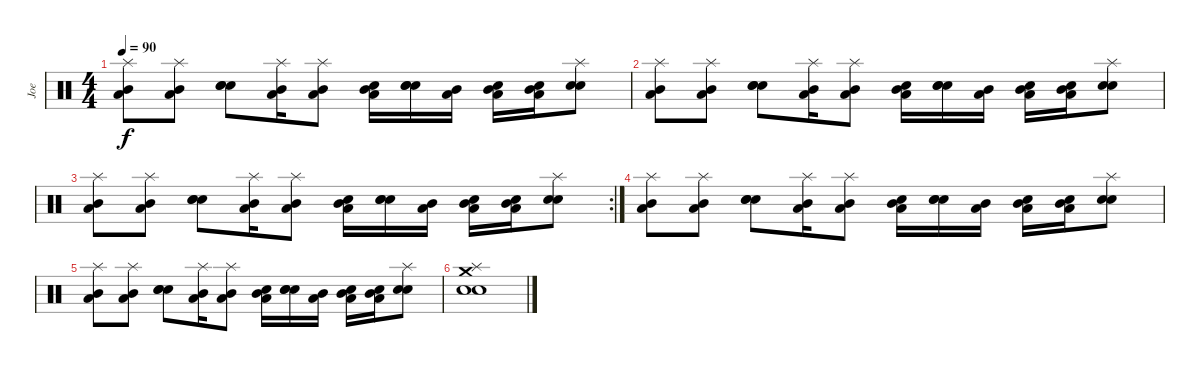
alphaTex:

\track ("Joe" "Joe") {instrument percussion}
\staff {score}
\articulation defaults
\ts (4 4)
\tempo 90
\clef neutral
\ks c
("Splash (hit)" "Low Floor Tom (hit)" "Mid Tom (hit)").8{dy f} ("Splash (hit)" "Low Floor Tom (hit)" "Mid Tom (hit)").8 ("Electric Snare (hit)" "Snare (hit) 2" "Snare (hit) 2").8 ("Splash (hit)" "Low Floor Tom (hit)" "Mid Tom (hit)").16 ("Splash (hit)" "Low Floor Tom (hit)" "Mid Tom (hit)").8 ("Electric Snare (hit)" "Low Floor Tom (hit)" "Mid Tom (hit)").16 ("Electric Snare (hit)" "Snare (hit) 2" "Snare (hit) 2").16 ("Low Floor Tom (hit)" "Mid Tom (hit)").16 ("Electric Snare (hit)" "Low Floor Tom (hit)" "Mid Tom (hit)").16 ("Electric Snare (hit)" "Low Floor Tom (hit)" "Mid Tom (hit)").16 ("Splash (hit)" "Snare (hit) 2" "Snare (hit) 2").8 |
("Splash (hit)" "Low Floor Tom (hit)" "Mid Tom (hit)").8 ("Splash (hit)" "Low Floor Tom (hit)" "Mid Tom (hit)").8 ("Electric Snare (hit)" "Snare (hit) 2" "Snare (hit) 2").8 ("Splash (hit)" "Low Floor Tom (hit)" "Mid Tom (hit)").16 ("Splash (hit)" "Low Floor Tom (hit)" "Mid Tom (hit)").8 ("Electric Snare (hit)" "Low Floor Tom (hit)" "Mid Tom (hit)").16 ("Electric Snare (hit)" "Snare (hit) 2" "Snare (hit) 2").16 ("Low Floor Tom (hit)" "Mid Tom (hit)").16 ("Electric Snare (hit)" "Low Floor Tom (hit)" "Mid Tom (hit)").16 ("Electric Snare (hit)" "Low Floor Tom (hit)" "Mid Tom (hit)").16 ("Splash (hit)" "Snare (hit) 2" "Snare (hit) 2").8 |
\rc 2
("Splash (hit)" "Low Floor Tom (hit)" "Mid Tom (hit)").8 ("Splash (hit)" "Low Floor Tom (hit)" "Mid Tom (hit)").8 ("Electric Snare (hit)" "Snare (hit) 2" "Snare (hit) 2").8 ("Splash (hit)" "Low Floor Tom (hit)" "Mid Tom (hit)").16 ("Splash (hit)" "Low Floor Tom (hit)" "Mid Tom (hit)").8 ("Electric Snare (hit)" "Low Floor Tom (hit)" "Mid Tom (hit)").16 ("Electric Snare (hit)" "Snare (hit) 2" "Snare (hit) 2").16 ("Low Floor Tom (hit)" "Mid Tom (hit)").16 ("Electric Snare (hit)" "Low Floor Tom (hit)" "Mid Tom (hit)").16 ("Electric Snare (hit)" "Low Floor Tom (hit)" "Mid Tom (hit)").16 ("Splash (hit)" "Snare (hit) 2" "Snare (hit) 2").8 |
("Splash (hit)" "Low Floor Tom (hit)" "Mid Tom (hit)").8 ("Splash (hit)" "Low Floor Tom (hit)" "Mid Tom (hit)").8 ("Electric Snare (hit)" "Snare (hit) 2" "Snare (hit) 2").8 ("Splash (hit)" "Low Floor Tom (hit)" "Mid Tom (hit)").16 ("Splash (hit)" "Low Floor Tom (hit)" "Mid Tom (hit)").8 ("Electric Snare (hit)" "Low Floor Tom (hit)" "Mid Tom (hit)").16 ("Electric Snare (hit)" "Snare (hit) 2" "Snare (hit) 2").16 ("Low Floor Tom (hit)" "Mid Tom (hit)").16 ("Electric Snare (hit)" "Low Floor Tom (hit)" "Mid Tom (hit)").16 ("Electric Snare (hit)" "Low Floor Tom (hit)" "Mid Tom (hit)").16 ("Splash (hit)" "Snare (hit) 2" "Snare (hit) 2").8 |
("Splash (hit)" "Low Floor Tom (hit)" "Mid Tom (hit)").8 ("Splash (hit)" "Low Floor Tom (hit)" "Mid Tom (hit)").8 ("Electric Snare (hit)" "Snare (hit) 2" "Snare (hit) 2").8 ("Splash (hit)" "Low Floor Tom (hit)" "Mid Tom (hit)").16 ("Splash (hit)" "Low Floor Tom (hit)" "Mid Tom (hit)").8 ("Electric Snare (hit)" "Low Floor Tom (hit)" "Mid Tom (hit)").16 ("Electric Snare (hit)" "Snare (hit) 2" "Snare (hit) 2").16 ("Low Floor Tom (hit)" "Mid Tom (hit)").16 ("Electric Snare (hit)" "Low Floor Tom (hit)" "Mid Tom (hit)").16 ("Electric Snare (hit)" "Low Floor Tom (hit)" "Mid Tom (hit)").16 ("Splash (hit)" "Snare (hit) 2" "Snare (hit) 2").8 |
("Splash (hit)" "Snare (hit) 2" "Snare (hit) 2" "Crash medium (hit)").1
